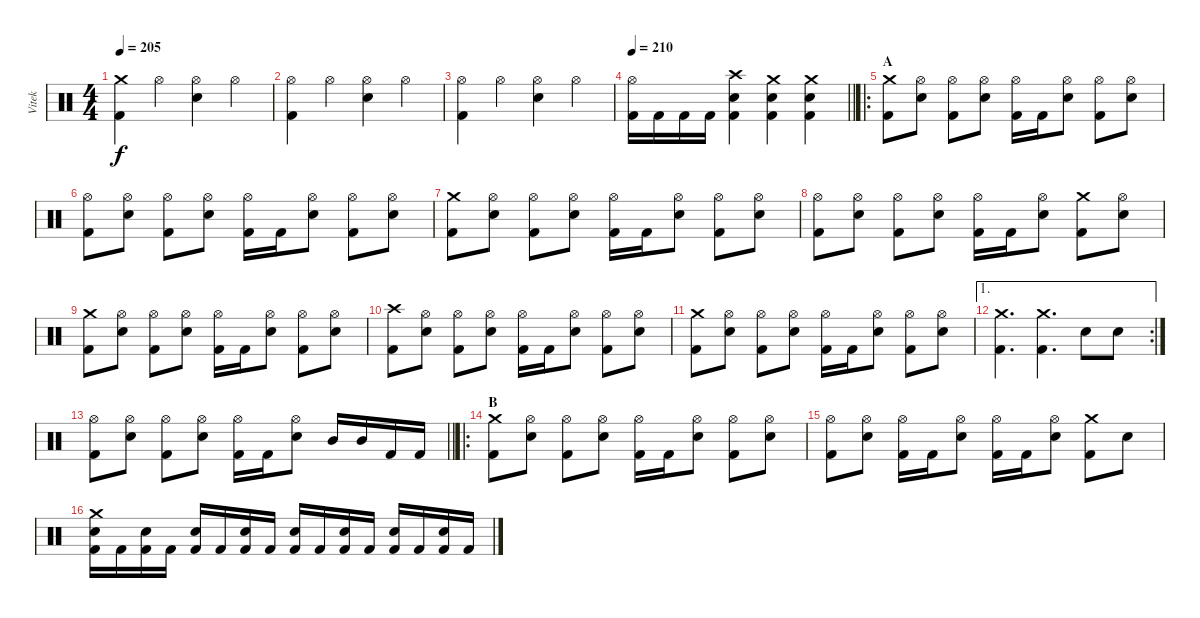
\track ("Vitek" "Vitek") {instrument percussion}
\staff {score}
\articulation defaults
\ts (4 4)
\tempo 205
\clef neutral
\ks c
("Crash medium (hit)" "Kick (hit) 2").4{dy f} "Hi-Hat (open)".4 ("Hi-Hat (open)" "Electric Snare (hit)").4 "Hi-Hat (open)".4 |
("Hi-Hat (open)" "Kick (hit) 2").4 "Hi-Hat (open)".4 ("Hi-Hat (open)" "Electric Snare (hit)").4 "Hi-Hat (open)".4 |
("Hi-Hat (open)" "Kick (hit) 2").4 "Hi-Hat (open)".4 ("Hi-Hat (open)" "Electric Snare (hit)").4 "Hi-Hat (open)".4 |
\tempo 210
\barLineRight lightlight
("Hi-Hat (open)" "Kick (hit) 2").16 "Kick (hit) 2".16 "Kick (hit) 2".16 "Kick (hit) 2".16 ("Crash high (hit)" "Electric Snare (hit)" "Kick (hit) 2").4 ("Crash medium (hit)" "Electric Snare (hit)" "Kick (hit) 2").4 ("Crash medium (hit)" "Electric Snare (hit)" "Kick (hit) 2").4 |
\ro
\section ("" "A")
("Crash medium (hit)" "Kick (hit) 2").8 ("Hi-Hat (open)" "Electric Snare (hit)").8 ("Hi-Hat (open)" "Kick (hit) 2").8 ("Hi-Hat (open)" "Electric Snare (hit)").8 ("Hi-Hat (open)" "Kick (hit) 2").16 "Kick (hit) 2".16 ("Hi-Hat (open)" "Electric Snare (hit)").8 ("Hi-Hat (open)" "Kick (hit) 2").8 ("Hi-Hat (open)" "Electric Snare (hit)").8 |
("Hi-Hat (open)" "Kick (hit) 2").8 ("Hi-Hat (open)" "Electric Snare (hit)").8 ("Hi-Hat (open)" "Kick (hit) 2").8 ("Hi-Hat (open)" "Electric Snare (hit)").8 ("Hi-Hat (open)" "Kick (hit) 2").16 "Kick (hit) 2".16 ("Hi-Hat (open)" "Electric Snare (hit)").8 ("Hi-Hat (open)" "Kick (hit) 2").8 ("Hi-Hat (open)" "Electric Snare (hit)").8 |
("Crash medium (hit)" "Kick (hit) 2").8 ("Hi-Hat (open)" "Electric Snare (hit)").8 ("Hi-Hat (open)" "Kick (hit) 2").8 ("Hi-Hat (open)" "Electric Snare (hit)").8 ("Hi-Hat (open)" "Kick (hit) 2").16 "Kick (hit) 2".16 ("Hi-Hat (open)" "Electric Snare (hit)").8 ("Hi-Hat (open)" "Kick (hit) 2").8 ("Hi-Hat (open)" "Electric Snare (hit)").8 |
("Hi-Hat (open)" "Kick (hit) 2").8 ("Hi-Hat (open)" "Electric Snare (hit)").8 ("Hi-Hat (open)" "Kick (hit) 2").8 ("Hi-Hat (open)" "Electric Snare (hit)").8 ("Hi-Hat (open)" "Kick (hit) 2").16 "Kick (hit) 2".16 ("Hi-Hat (open)" "Electric Snare (hit)").8 ("Crash medium (hit)" "Kick (hit) 2").8 ("Hi-Hat (open)" "Electric Snare (hit)").8 |
("Crash medium (hit)" "Kick (hit) 2").8 ("Hi-Hat (open)" "Electric Snare (hit)").8 ("Hi-Hat (open)" "Kick (hit) 2").8 ("Hi-Hat (open)" "Electric Snare (hit)").8 ("Hi-Hat (open)" "Kick (hit) 2").16 "Kick (hit) 2".16 ("Hi-Hat (open)" "Electric Snare (hit)").8 ("Hi-Hat (open)" "Kick (hit) 2").8 ("Hi-Hat (open)" "Electric Snare (hit)").8 |
("Crash high (hit)" "Kick (hit) 2").8 ("Hi-Hat (open)" "Electric Snare (hit)").8 ("Hi-Hat (open)" "Kick (hit) 2").8 ("Hi-Hat (open)" "Electric Snare (hit)").8 ("Hi-Hat (open)" "Kick (hit) 2").16 "Kick (hit) 2".16 ("Hi-Hat (open)" "Electric Snare (hit)").8 ("Hi-Hat (open)" "Kick (hit) 2").8 ("Hi-Hat (open)" "Electric Snare (hit)").8 |
("Crash medium (hit)" "Kick (hit) 2").8 ("Hi-Hat (open)" "Electric Snare (hit)").8 ("Hi-Hat (open)" "Kick (hit) 2").8 ("Hi-Hat (open)" "Electric Snare (hit)").8 ("Hi-Hat (open)" "Kick (hit) 2").16 "Kick (hit) 2".16 ("Hi-Hat (open)" "Electric Snare (hit)").8 ("Hi-Hat (open)" "Kick (hit) 2").8 ("Hi-Hat (open)" "Electric Snare (hit)").8 |
\ae 1
\rc 2
("Crash medium (hit)" "Kick (hit) 2").4{d} ("Crash medium (hit)" "Kick (hit) 2").4{d} "Electric Snare (hit)".8 "Electric Snare (hit)".8 |
\barLineRight lightlight
("Hi-Hat (open)" "Kick (hit) 2").8 ("Hi-Hat (open)" "Electric Snare (hit)").8 ("Hi-Hat (open)" "Kick (hit) 2").8 ("Hi-Hat (open)" "Electric Snare (hit)").8 ("Hi-Hat (open)" "Kick (hit) 2").16 "Kick (hit) 2".16 ("Hi-Hat (open)" "Electric Snare (hit)").8 "Mid Tom (hit)".16 "Mid Tom (hit)".16 "Kick (hit) 2".16 "Kick (hit) 2".16 |
\ro
\section ("" "B")
("Crash medium (hit)" "Kick (hit) 2").8 ("Hi-Hat (open)" "Electric Snare (hit)").8 ("Hi-Hat (open)" "Kick (hit) 2").8 ("Hi-Hat (open)" "Electric Snare (hit)").8 ("Hi-Hat (open)" "Kick (hit) 2").16 "Kick (hit) 2".16 ("Hi-Hat (open)" "Electric Snare (hit)").8 ("Hi-Hat (open)" "Kick (hit) 2").8 ("Hi-Hat (open)" "Electric Snare (hit)").8 |
("Hi-Hat (open)" "Kick (hit) 2").8 ("Hi-Hat (open)" "Electric Snare (hit)").8 ("Hi-Hat (open)" "Kick (hit) 2").16 "Kick (hit) 2".16 ("Hi-Hat (open)" "Electric Snare (hit)").8 ("Hi-Hat (open)" "Kick (hit) 2").16 "Kick (hit) 2".16 ("Hi-Hat (open)" "Electric Snare (hit)").8 ("Crash medium (hit)" "Kick (hit) 2").8 "Electric Snare (hit)".8 |
("Crash medium (hit)" "Electric Snare (hit)" "Kick (hit) 2").16 "Kick (hit) 2".16 ("Electric Snare (hit)" "Kick (hit) 2").16 "Kick (hit) 2".16 ("Electric Snare (hit)" "Kick (hit) 2").16 "Kick (hit) 2".16 ("Electric Snare (hit)" "Kick (hit) 2").16 "Kick (hit) 2".16 ("Electric Snare (hit)" "Kick (hit) 2").16 "Kick (hit) 2".16 ("Electric Snare (hit)" "Kick (hit) 2").16 "Kick (hit) 2".16 ("Electric Snare (hit)" "Kick (hit) 2").16 "Kick (hit) 2".16 ("Electric Snare (hit)" "Kick (hit) 2").16 "Kick (hit) 2".16
